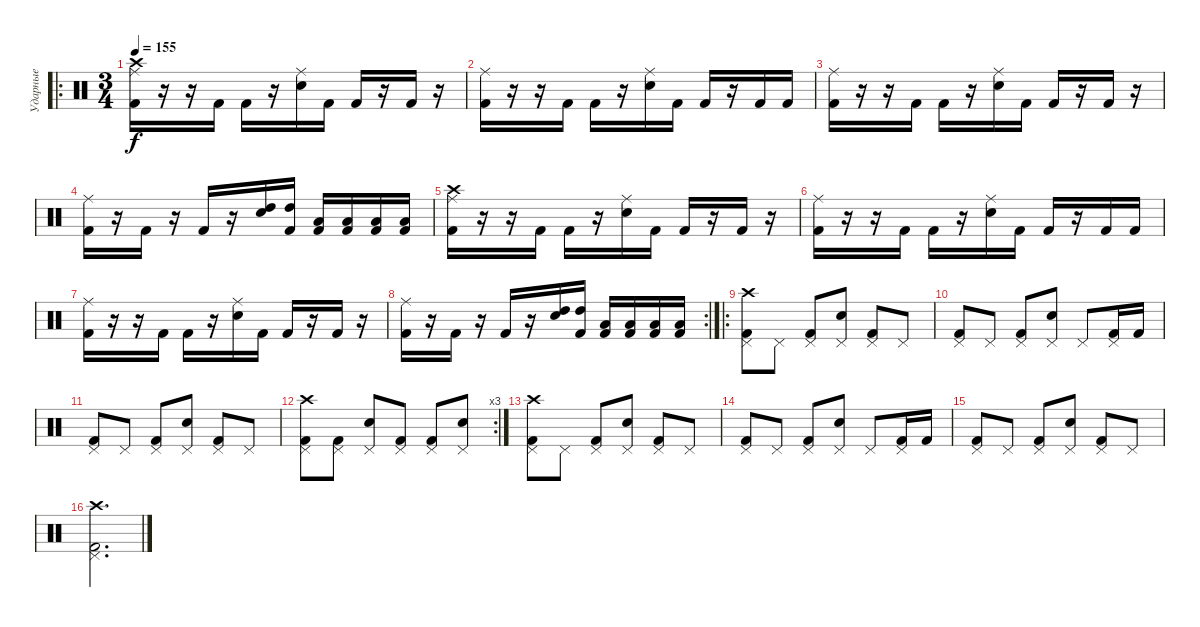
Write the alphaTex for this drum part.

\track ("Ударные" "Ударные") {instrument percussion}
\staff {score}
\articulation defaults
\ro
\ts (3 4)
\tempo 155
\clef neutral
\ks c
("Ride (middle)" "Crash high (hit)" "Kick (hit) 2").16{dy f} r.16 r.16 "Kick (hit) 2".16 "Kick (hit) 2".16 r.16 ("Ride (middle)" "Snare (hit) 2").16 "Kick (hit) 2".16 "Kick (hit) 2".16 r.16 "Kick (hit) 2".16 r.16 |
("Ride (middle)" "Kick (hit) 2").16 r.16 r.16 "Kick (hit) 2".16 "Kick (hit) 2".16 r.16 ("Ride (middle)" "Snare (hit) 2").16 "Kick (hit) 2".16 "Kick (hit) 2".16 r.16 "Kick (hit) 2".16 "Kick (hit) 2".16 |
("Ride (middle)" "Kick (hit) 2").16 r.16 r.16 "Kick (hit) 2".16 "Kick (hit) 2".16 r.16 ("Ride (middle)" "Snare (hit) 2").16 "Kick (hit) 2".16 "Kick (hit) 2".16 r.16 "Kick (hit) 2".16 r.16 |
("Ride (middle)" "Kick (hit) 2").16 r.16 "Kick (hit) 2".16 r.16 "Kick (hit) 2".16 r.16 ("High Tom (hit)" "Snare (hit) 2").16 ("High Tom (hit)" "Kick (hit) 2").16 ("Low Tom (hit)" "Kick (hit) 2").16 ("Low Floor Tom (hit)" "Kick (hit) 2").16 ("Low Floor Tom (hit)" "Kick (hit) 2").16 ("Low Floor Tom (hit)" "Kick (hit) 2").16 |
("Ride (middle)" "Crash high (hit)" "Kick (hit) 2").16 r.16 r.16 "Kick (hit) 2".16 "Kick (hit) 2".16 r.16 ("Ride (middle)" "Snare (hit) 2").16 "Kick (hit) 2".16 "Kick (hit) 2".16 r.16 "Kick (hit) 2".16 r.16 |
("Ride (middle)" "Kick (hit) 2").16 r.16 r.16 "Kick (hit) 2".16 "Kick (hit) 2".16 r.16 ("Ride (middle)" "Snare (hit) 2").16 "Kick (hit) 2".16 "Kick (hit) 2".16 r.16 "Kick (hit) 2".16 "Kick (hit) 2".16 |
("Ride (middle)" "Kick (hit) 2").16 r.16 r.16 "Kick (hit) 2".16 "Kick (hit) 2".16 r.16 ("Ride (middle)" "Snare (hit) 2").16 "Kick (hit) 2".16 "Kick (hit) 2".16 r.16 "Kick (hit) 2".16 r.16 |
\rc 2
("Ride (middle)" "Kick (hit) 2").16 r.16 "Kick (hit) 2".16 r.16 "Kick (hit) 2".16 r.16 ("High Tom (hit)" "Snare (hit) 2").16 ("High Tom (hit)" "Kick (hit) 2").16 ("Low Tom (hit)" "Kick (hit) 2").16 ("Low Floor Tom (hit)" "Kick (hit) 2").16 ("Low Floor Tom (hit)" "Kick (hit) 2").16 ("Low Floor Tom (hit)" "Kick (hit) 2").16 |
\ro
("Crash high (hit)" "Pedal Hi-Hat (hit)" "Kick (hit) 2").8 "Pedal Hi-Hat (hit)".8 ("Pedal Hi-Hat (hit)" "Kick (hit) 2").8 ("Snare (hit) 2" "Pedal Hi-Hat (hit)").8 ("Pedal Hi-Hat (hit)" "Kick (hit) 2").8 "Pedal Hi-Hat (hit)".8 |
("Pedal Hi-Hat (hit)" "Kick (hit) 2").8 "Pedal Hi-Hat (hit)".8 ("Pedal Hi-Hat (hit)" "Kick (hit) 2").8 ("Snare (hit) 2" "Pedal Hi-Hat (hit)").8 "Pedal Hi-Hat (hit)".8 ("Pedal Hi-Hat (hit)" "Kick (hit) 2").16 "Kick (hit) 2".16 |
("Pedal Hi-Hat (hit)" "Kick (hit) 2").8 "Pedal Hi-Hat (hit)".8 ("Pedal Hi-Hat (hit)" "Kick (hit) 2").8 ("Snare (hit) 2" "Pedal Hi-Hat (hit)").8 ("Pedal Hi-Hat (hit)" "Kick (hit) 2").8 "Pedal Hi-Hat (hit)".8 |
\rc 3
("Crash high (hit)" "Pedal Hi-Hat (hit)" "Kick (hit) 2").8 ("Pedal Hi-Hat (hit)" "Kick (hit) 2").8 ("Pedal Hi-Hat (hit)" "Snare (hit) 2").8 ("Pedal Hi-Hat (hit)" "Kick (hit) 2").8 ("Pedal Hi-Hat (hit)" "Kick (hit) 2").8 ("Pedal Hi-Hat (hit)" "Snare (hit) 2").8 |
("Crash high (hit)" "Pedal Hi-Hat (hit)" "Kick (hit) 2").8 "Pedal Hi-Hat (hit)".8 ("Pedal Hi-Hat (hit)" "Kick (hit) 2").8 ("Snare (hit) 2" "Pedal Hi-Hat (hit)").8 ("Pedal Hi-Hat (hit)" "Kick (hit) 2").8 "Pedal Hi-Hat (hit)".8 |
("Pedal Hi-Hat (hit)" "Kick (hit) 2").8 "Pedal Hi-Hat (hit)".8 ("Pedal Hi-Hat (hit)" "Kick (hit) 2").8 ("Snare (hit) 2" "Pedal Hi-Hat (hit)").8 "Pedal Hi-Hat (hit)".8 ("Pedal Hi-Hat (hit)" "Kick (hit) 2").16 "Kick (hit) 2".16 |
("Pedal Hi-Hat (hit)" "Kick (hit) 2").8 "Pedal Hi-Hat (hit)".8 ("Pedal Hi-Hat (hit)" "Kick (hit) 2").8 ("Snare (hit) 2" "Pedal Hi-Hat (hit)").8 ("Pedal Hi-Hat (hit)" "Kick (hit) 2").8 "Pedal Hi-Hat (hit)".8 |
("Crash high (hit)" "Pedal Hi-Hat (hit)" "Kick (hit) 2").2{d}
